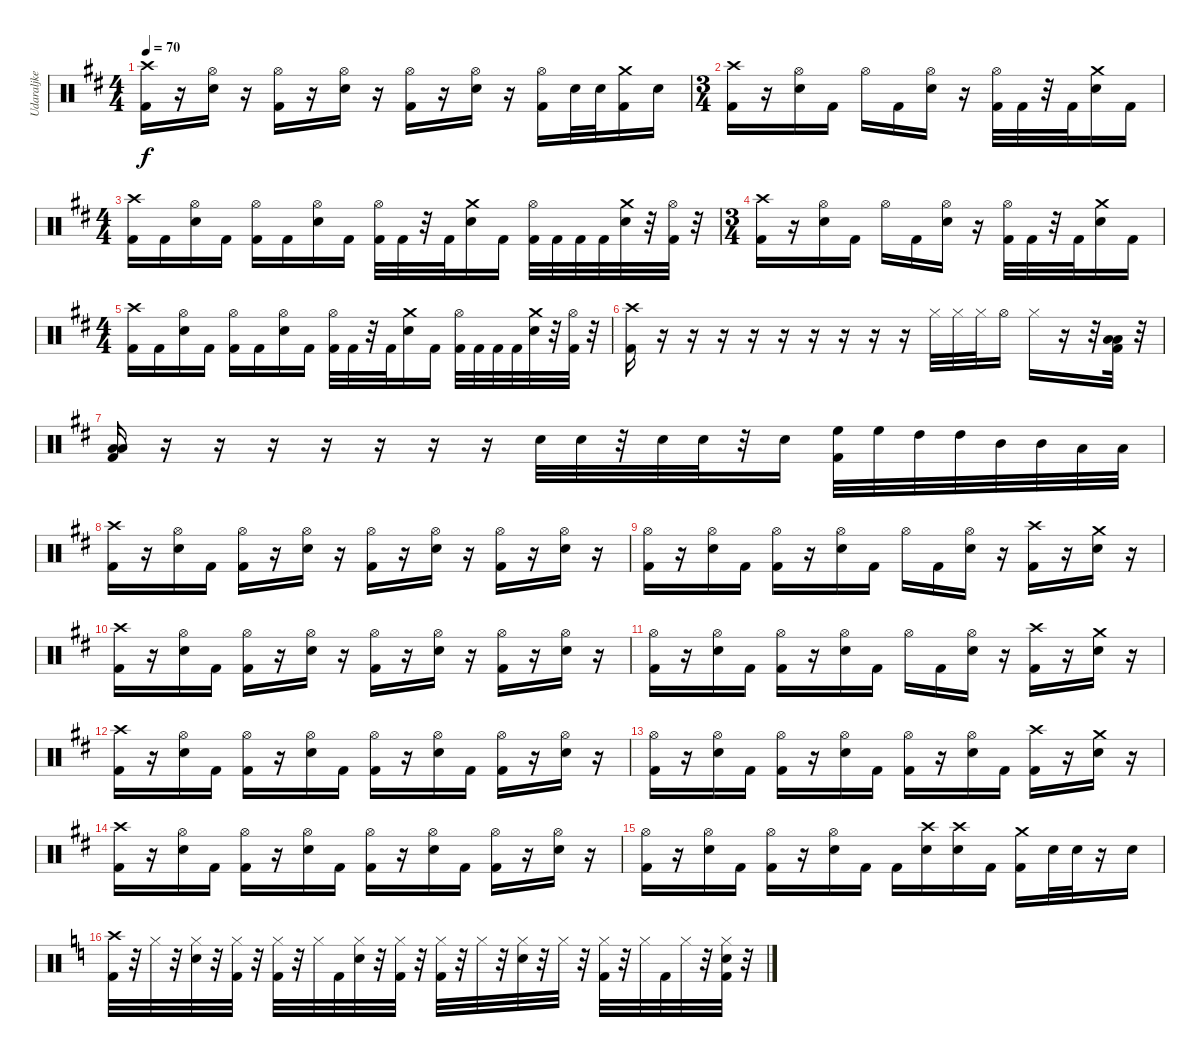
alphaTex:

\track ("Udaraljke" "Udaraljke") {instrument percussion}
\staff {score}
\articulation defaults
\ts (4 4)
\tempo 70
\clef neutral
\ks bminor
("Crash high (hit)" "Kick (hit) 2").16{dy f} r.16 ("Hi-Hat (open)" "Snare (hit) 2").16 r.16 ("Hi-Hat (open)" "Kick (hit) 2").16 r.16 ("Hi-Hat (open)" "Snare (hit) 2").16 r.16 ("Hi-Hat (open)" "Kick (hit) 2").16 r.16 ("Hi-Hat (open)" "Snare (hit) 2").16 r.16 ("Hi-Hat (open)" "Kick (hit) 2").16 "Snare (hit) 2".32 "Snare (hit) 2".32 ("Crash medium (hit)" "Kick (hit) 2").16 "Snare (hit) 2".16 |
\ts (3 4)
("Crash high (hit)" "Kick (hit) 2").16 r.16 ("Hi-Hat (open)" "Snare (hit) 2").16 "Kick (hit) 2".16 "Hi-Hat (open)".16 "Kick (hit) 2".16 ("Hi-Hat (open)" "Snare (hit) 2").16 r.16 ("Hi-Hat (open)" "Kick (hit) 2").32 "Kick (hit) 2".32 r.32 "Kick (hit) 2".32 ("Crash medium (hit)" "Snare (hit) 2").16 "Kick (hit) 2".16 |
\ts (4 4)
("Crash high (hit)" "Kick (hit) 2").16 "Kick (hit) 2".16 ("Hi-Hat (open)" "Snare (hit) 2").16 "Kick (hit) 2".16 ("Hi-Hat (open)" "Kick (hit) 2").16 "Kick (hit) 2".16 ("Hi-Hat (open)" "Snare (hit) 2").16 "Kick (hit) 2".16 ("Hi-Hat (open)" "Kick (hit) 2").32 "Kick (hit) 2".32 r.32 "Kick (hit) 2".32 ("Crash medium (hit)" "Snare (hit) 2").16 "Kick (hit) 2".16 ("Hi-Hat (open)" "Kick (hit) 2").32 "Kick (hit) 2".32 "Kick (hit) 2".32 "Kick (hit) 2".32 ("Crash medium (hit)" "Snare (hit) 2").32 r.32 ("Hi-Hat (open)" "Kick (hit) 2").32 r.32 |
\ts (3 4)
("Crash high (hit)" "Kick (hit) 2").16 r.16 ("Hi-Hat (open)" "Snare (hit) 2").16 "Kick (hit) 2".16 "Hi-Hat (open)".16 "Kick (hit) 2".16 ("Hi-Hat (open)" "Snare (hit) 2").16 r.16 ("Hi-Hat (open)" "Kick (hit) 2").32 "Kick (hit) 2".32 r.32 "Kick (hit) 2".32 ("Crash medium (hit)" "Snare (hit) 2").16 "Kick (hit) 2".16 |
\ts (4 4)
("Crash high (hit)" "Kick (hit) 2").16 "Kick (hit) 2".16 ("Hi-Hat (open)" "Snare (hit) 2").16 "Kick (hit) 2".16 ("Hi-Hat (open)" "Kick (hit) 2").16 "Kick (hit) 2".16 ("Hi-Hat (open)" "Snare (hit) 2").16 "Kick (hit) 2".16 ("Hi-Hat (open)" "Kick (hit) 2").32 "Kick (hit) 2".32 r.32 "Kick (hit) 2".32 ("Crash medium (hit)" "Snare (hit) 2").16 "Kick (hit) 2".16 ("Hi-Hat (open)" "Kick (hit) 2").32 "Kick (hit) 2".32 "Kick (hit) 2".32 "Kick (hit) 2".32 ("Crash medium (hit)" "Snare (hit) 2").32 r.32 ("Hi-Hat (open)" "Kick (hit) 2").32 r.32 |
("Crash high (hit)" "Kick (hit) 2").16 r.16 r.16 r.16 r.16 r.16 r.16 r.16 r.16 r.16 "Hi-Hat (closed)".32 "Hi-Hat (closed)".32 "Hi-Hat (closed)".32 "Hi-Hat (open)".16 "Hi-Hat (closed)".16 r.16 r.32 ("Low Tom (hit)" "Low Floor Tom (hit)" "Kick (hit) 2").32 r.32 |
("Low Tom (hit)" "Low Floor Tom (hit)" "Kick (hit) 2").16 r.16 r.16 r.16 r.16 r.16 r.16 r.16 "Snare (hit) 2".32 "Snare (hit) 2".32 r.32 "Snare (hit) 2".32 "Snare (hit) 2".32 r.32 "Snare (hit) 2".16 ("High Floor Tom (hit)" "Kick (hit) 2").32 "High Floor Tom (hit)".32 "High Tom (hit)".32 "High Tom (hit)".32 "Mid Tom (hit)".32 "Mid Tom (hit)".32 "Low Tom (hit)".32 "Low Tom (hit)".32 |
("Crash high (hit)" "Kick (hit) 2").16 r.16 ("Hi-Hat (open)" "Snare (hit) 2").16 "Kick (hit) 2".16 ("Hi-Hat (open)" "Kick (hit) 2").16 r.16 ("Hi-Hat (open)" "Snare (hit) 2").16 r.16 ("Hi-Hat (open)" "Kick (hit) 2").16 r.16 ("Hi-Hat (open)" "Snare (hit) 2").16 r.16 ("Hi-Hat (open)" "Kick (hit) 2").16 r.16 ("Hi-Hat (open)" "Snare (hit) 2").16 r.16 |
("Hi-Hat (open)" "Kick (hit) 2").16 r.16 ("Hi-Hat (open)" "Snare (hit) 2").16 "Kick (hit) 2".16 ("Hi-Hat (open)" "Kick (hit) 2").16 r.16 ("Hi-Hat (open)" "Snare (hit) 2").16 "Kick (hit) 2".16 "Hi-Hat (open)".16 "Kick (hit) 2".16 ("Hi-Hat (open)" "Snare (hit) 2").16 r.16 ("Crash high (hit)" "Kick (hit) 2").16 r.16 ("Crash medium (hit)" "Snare (hit) 2").16 r.16 |
("Crash high (hit)" "Kick (hit) 2").16 r.16 ("Hi-Hat (open)" "Snare (hit) 2").16 "Kick (hit) 2".16 ("Hi-Hat (open)" "Kick (hit) 2").16 r.16 ("Hi-Hat (open)" "Snare (hit) 2").16 r.16 ("Hi-Hat (open)" "Kick (hit) 2").16 r.16 ("Hi-Hat (open)" "Snare (hit) 2").16 r.16 ("Hi-Hat (open)" "Kick (hit) 2").16 r.16 ("Hi-Hat (open)" "Snare (hit) 2").16 r.16 |
("Hi-Hat (open)" "Kick (hit) 2").16 r.16 ("Hi-Hat (open)" "Snare (hit) 2").16 "Kick (hit) 2".16 ("Hi-Hat (open)" "Kick (hit) 2").16 r.16 ("Hi-Hat (open)" "Snare (hit) 2").16 "Kick (hit) 2".16 "Hi-Hat (open)".16 "Kick (hit) 2".16 ("Hi-Hat (open)" "Snare (hit) 2").16 r.16 ("Crash high (hit)" "Kick (hit) 2").16 r.16 ("Crash medium (hit)" "Snare (hit) 2").16 r.16 |
("Crash high (hit)" "Kick (hit) 2").16 r.16 ("Hi-Hat (open)" "Snare (hit) 2").16 "Kick (hit) 2".16 ("Hi-Hat (open)" "Kick (hit) 2").16 r.16 ("Hi-Hat (open)" "Snare (hit) 2").16 "Kick (hit) 2".16 ("Hi-Hat (open)" "Kick (hit) 2").16 r.16 ("Hi-Hat (open)" "Snare (hit) 2").16 "Kick (hit) 2".16 ("Hi-Hat (open)" "Kick (hit) 2").16 r.16 ("Hi-Hat (open)" "Snare (hit) 2").16 r.16 |
("Hi-Hat (open)" "Kick (hit) 2").16 r.16 ("Hi-Hat (open)" "Snare (hit) 2").16 "Kick (hit) 2".16 ("Hi-Hat (open)" "Kick (hit) 2").16 r.16 ("Hi-Hat (open)" "Snare (hit) 2").16 "Kick (hit) 2".16 ("Hi-Hat (open)" "Kick (hit) 2").16 r.16 ("Hi-Hat (open)" "Snare (hit) 2").16 "Kick (hit) 2".16 ("Crash high (hit)" "Kick (hit) 2").16 r.16 ("Crash medium (hit)" "Snare (hit) 2").16 r.16 |
("Crash high (hit)" "Kick (hit) 2").16 r.16 ("Hi-Hat (open)" "Snare (hit) 2").16 "Kick (hit) 2".16 ("Hi-Hat (open)" "Kick (hit) 2").16 r.16 ("Hi-Hat (open)" "Snare (hit) 2").16 "Kick (hit) 2".16 ("Hi-Hat (open)" "Kick (hit) 2").16 r.16 ("Hi-Hat (open)" "Snare (hit) 2").16 "Kick (hit) 2".16 ("Hi-Hat (open)" "Kick (hit) 2").16 r.16 ("Hi-Hat (open)" "Snare (hit) 2").16 r.16 |
("Hi-Hat (open)" "Kick (hit) 2").16 r.16 ("Hi-Hat (open)" "Snare (hit) 2").16 "Kick (hit) 2".16 ("Hi-Hat (open)" "Kick (hit) 2").16 r.16 ("Hi-Hat (open)" "Snare (hit) 2").16 "Kick (hit) 2".16 "Kick (hit) 2".16 ("Crash high (hit)" "Snare (hit) 2").16 ("Crash high (hit)" "Snare (hit) 2").16 "Kick (hit) 2".16 ("Crash medium (hit)" "Kick (hit) 2").16 "Snare (hit) 2".32 "Snare (hit) 2".32 r.16 "Snare (hit) 2".16 |
\ks c
("Crash high (hit)" "Kick (hit) 2").32 r.32 "Hi-Hat (closed)".32 r.32 ("Hi-Hat (closed)" "Snare (hit) 2").32 r.32 ("Hi-Hat (closed)" "Kick (hit) 2").32 r.32 ("Hi-Hat (closed)" "Kick (hit) 2").32 r.32 "Hi-Hat (closed)".32 "Kick (hit) 2".32 ("Hi-Hat (closed)" "Snare (hit) 2").32 r.32 ("Hi-Hat (closed)" "Kick (hit) 2").32 r.32 ("Hi-Hat (closed)" "Kick (hit) 2").32 r.32 "Hi-Hat (closed)".32 r.32 ("Hi-Hat (closed)" "Snare (hit) 2").32 r.32 "Hi-Hat (closed)".32 r.32 ("Hi-Hat (closed)" "Kick (hit) 2").32 r.32 "Hi-Hat (closed)".32 "Kick (hit) 2".32 "Hi-Hat (closed)".32 r.32 ("Hi-Hat (closed)" "Snare (hit) 2" "Kick (hit) 2").32 r.32
